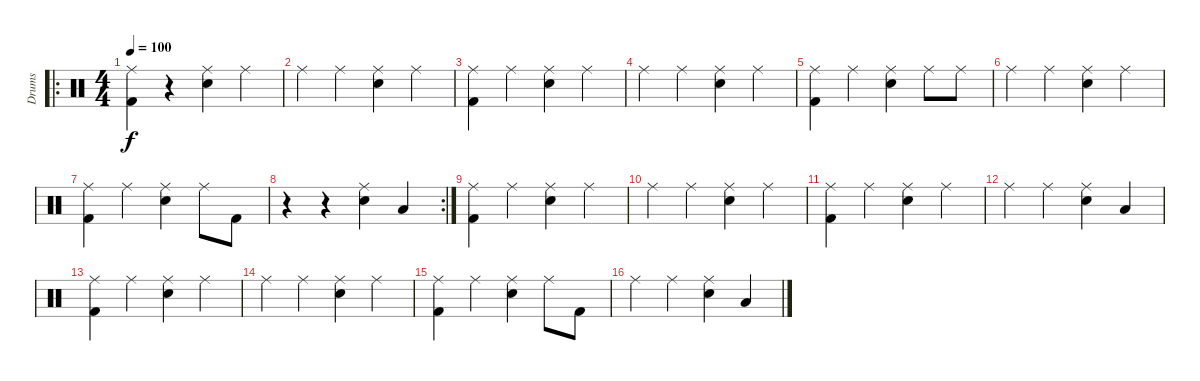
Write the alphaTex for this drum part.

\track ("Drums" "Drums") {instrument percussion}
\staff {score}
\articulation defaults
\ro
\ts (4 4)
\tempo 100
\clef neutral
\ks c
("Ride (middle)" "Kick (hit) 2").4{dy f volume 7} r.4 ("Ride (middle)" "Snare (hit) 2").4 "Ride (middle)".4 |
"Ride (middle)".4 "Ride (middle)".4 ("Ride (middle)" "Snare (hit) 2").4 "Ride (middle)".4 |
("Ride (middle)" "Kick (hit) 2").4 "Ride (middle)".4 ("Ride (middle)" "Snare (hit) 2").4 "Ride (middle)".4 |
"Ride (middle)".4 "Ride (middle)".4 ("Ride (middle)" "Snare (hit) 2").4 "Ride (middle)".4 |
("Ride (middle)" "Kick (hit) 2").4 "Ride (middle)".4 ("Ride (middle)" "Snare (hit) 2").4 "Ride (middle)".8 "Ride (middle)".8 |
"Ride (middle)".4 "Ride (middle)".4 ("Ride (middle)" "Snare (hit) 2").4 "Ride (middle)".4 |
("Ride (middle)" "Kick (hit) 2").4 "Ride (middle)".4 ("Ride (middle)" "Snare (hit) 2").4 "Ride (middle)".8 "Kick (hit) 2".8 |
\rc 2
r.4 r.4 ("Ride (middle)" "Snare (hit) 2").4 "Low Tom (hit)".4 |
("Ride (middle)" "Kick (hit) 2").4{volume 7} "Ride (middle)".4 ("Ride (middle)" "Snare (hit) 2").4 "Ride (middle)".4 |
"Ride (middle)".4 "Ride (middle)".4 ("Ride (middle)" "Snare (hit) 2").4 "Ride (middle)".4 |
("Ride (middle)" "Kick (hit) 2").4 "Ride (middle)".4 ("Ride (middle)" "Snare (hit) 2").4 "Ride (middle)".4 |
"Ride (middle)".4 "Ride (middle)".4 ("Ride (middle)" "Snare (hit) 2").4 "Low Tom (hit)".4 |
("Ride (middle)" "Kick (hit) 2").4{volume 7} "Ride (middle)".4 ("Ride (middle)" "Snare (hit) 2").4 "Ride (middle)".4 |
"Ride (middle)".4 "Ride (middle)".4 ("Ride (middle)" "Snare (hit) 2").4 "Ride (middle)".4 |
("Ride (middle)" "Kick (hit) 2").4 "Ride (middle)".4 ("Ride (middle)" "Snare (hit) 2").4 "Ride (middle)".8 "Kick (hit) 2".8 |
"Ride (middle)".4 "Ride (middle)".4 ("Ride (middle)" "Snare (hit) 2").4 "Low Tom (hit)".4
